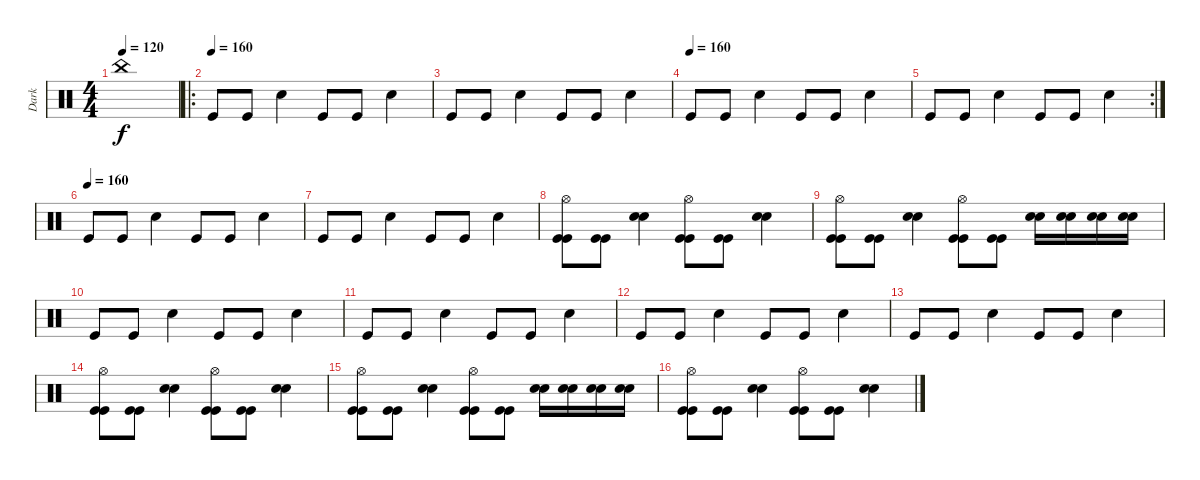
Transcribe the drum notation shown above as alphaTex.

\track ("Dark" "Dark") {instrument percussion}
\staff {score}
\articulation defaults
\ts (4 4)
\tempo 120
\clef neutral
\ks c "China (hit)".1{dy f}
|
\ro
\tempo (160)
"Kick (hit)".8 "Kick (hit)".8 "Snare (hit) 2".4 "Kick (hit)".8 "Kick (hit)".8 "Snare (hit) 2".4 |
"Kick (hit)".8 "Kick (hit)".8 "Snare (hit) 2".4 "Kick (hit)".8 "Kick (hit)".8 "Snare (hit) 2".4 |
\tempo (160)
"Kick (hit)".8 "Kick (hit)".8 "Snare (hit) 2".4 "Kick (hit)".8 "Kick (hit)".8 "Snare (hit) 2".4 |
\rc 2 "Kick (hit)".8 "Kick (hit)".8 "Snare (hit) 2".4 "Kick (hit)".8 "Kick (hit)".8 "Snare (hit) 2".4
|
\tempo (160)
"Kick (hit)".8 "Kick (hit)".8 "Snare (hit) 2".4 "Kick (hit)".8 "Kick (hit)".8 "Snare (hit) 2".4 |
"Kick (hit)".8 "Kick (hit)".8 "Snare (hit) 2".4 "Kick (hit)".8 "Kick (hit)".8 "Snare (hit) 2".4 |
("Hi-Hat (open)" "Kick (hit)" "Kick (hit)").8 ("Kick (hit)" "Kick (hit)").8 ("Snare (hit) 2" "Snare (hit) 2").4 ("Hi-Hat (open)" "Kick (hit)" "Kick (hit)").8 ("Kick (hit)" "Kick (hit)").8 ("Snare (hit) 2" "Snare (hit) 2").4 |
("Hi-Hat (open)" "Kick (hit)" "Kick (hit)").8 ("Kick (hit)" "Kick (hit)").8 ("Snare (hit) 2" "Snare (hit) 2").4 ("Hi-Hat (open)" "Kick (hit)" "Kick (hit)").8 ("Kick (hit)" "Kick (hit)").8 ("Snare (hit) 2" "Snare (hit) 2").16 ("Snare (hit) 2" "Snare (hit) 2").16 ("Snare (hit) 2" "Snare (hit) 2").16 ("Snare (hit) 2" "Snare (hit) 2").16 |
"Kick (hit)".8 "Kick (hit)".8 "Snare (hit) 2".4 "Kick (hit)".8 "Kick (hit)".8 "Snare (hit) 2".4 |
"Kick (hit)".8 "Kick (hit)".8 "Snare (hit) 2".4 "Kick (hit)".8 "Kick (hit)".8 "Snare (hit) 2".4 |
"Kick (hit)".8 "Kick (hit)".8 "Snare (hit) 2".4 "Kick (hit)".8 "Kick (hit)".8 "Snare (hit) 2".4 |
"Kick (hit)".8 "Kick (hit)".8 "Snare (hit) 2".4 "Kick (hit)".8 "Kick (hit)".8 "Snare (hit) 2".4 |
("Hi-Hat (open)" "Kick (hit)" "Kick (hit)").8 ("Kick (hit)" "Kick (hit)").8 ("Snare (hit) 2" "Snare (hit) 2").4 ("Hi-Hat (open)" "Kick (hit)" "Kick (hit)").8 ("Kick (hit)" "Kick (hit)").8 ("Snare (hit) 2" "Snare (hit) 2").4 |
("Hi-Hat (open)" "Kick (hit)" "Kick (hit)").8 ("Kick (hit)" "Kick (hit)").8 ("Snare (hit) 2" "Snare (hit) 2").4 ("Hi-Hat (open)" "Kick (hit)" "Kick (hit)").8 ("Kick (hit)" "Kick (hit)").8 ("Snare (hit) 2" "Snare (hit) 2").16 ("Snare (hit) 2" "Snare (hit) 2").16 ("Snare (hit) 2" "Snare (hit) 2").16 ("Snare (hit) 2" "Snare (hit) 2").16 |
("Hi-Hat (open)" "Kick (hit)" "Kick (hit)").8 ("Kick (hit)" "Kick (hit)").8 ("Snare (hit) 2" "Snare (hit) 2").4 ("Hi-Hat (open)" "Kick (hit)" "Kick (hit)").8 ("Kick (hit)" "Kick (hit)").8 ("Snare (hit) 2" "Snare (hit) 2").4
